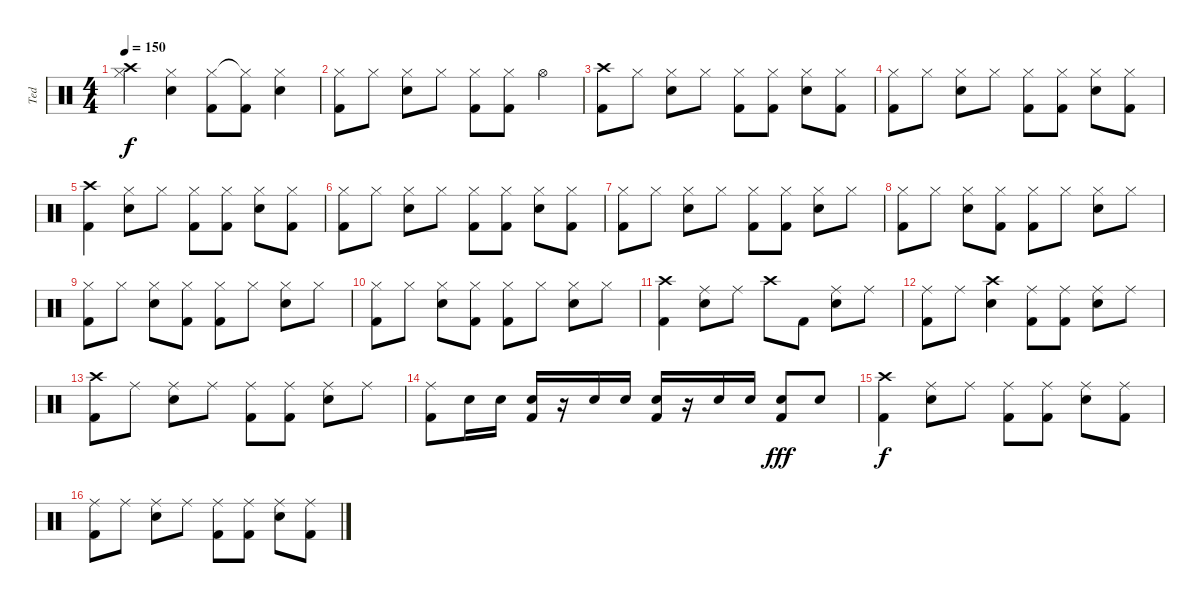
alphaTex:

\track ("Ted" "Ted") {instrument percussion}
\staff {score}
\articulation defaults
\ts (4 4)
\tempo 150
\clef neutral
\ks c
("Crash high (hit)" "Hi-Hat (closed)").4{dy f} ("Hi-Hat (closed)" "Electric Snare (hit)").4 ("Hi-Hat (closed)" "Kick (hit) 2").8 ("Hi-Hat (closed)"{t} "Kick (hit) 2").8 ("Hi-Hat (closed)" "Electric Snare (hit)").4 |
("Hi-Hat (closed)" "Kick (hit) 2").8 "Hi-Hat (closed)".8 ("Hi-Hat (closed)" "Electric Snare (hit)").8 "Hi-Hat (closed)".8 ("Hi-Hat (closed)" "Kick (hit) 2").8 ("Hi-Hat (closed)" "Kick (hit) 2").8 "Hi-Hat (open)".4 |
("Crash high (hit)" "Kick (hit) 2").8 "Hi-Hat (closed)".8 ("Hi-Hat (closed)" "Electric Snare (hit)").8 "Hi-Hat (closed)".8 ("Hi-Hat (closed)" "Kick (hit) 2").8 ("Hi-Hat (closed)" "Kick (hit) 2").8 ("Hi-Hat (closed)" "Electric Snare (hit)").8 ("Hi-Hat (closed)" "Kick (hit) 2").8 |
("Hi-Hat (closed)" "Kick (hit) 2").8 "Hi-Hat (closed)".8 ("Hi-Hat (closed)" "Electric Snare (hit)").8 "Hi-Hat (closed)".8 ("Hi-Hat (closed)" "Kick (hit) 2").8 ("Hi-Hat (closed)" "Kick (hit) 2").8 ("Hi-Hat (closed)" "Electric Snare (hit)").8 ("Hi-Hat (closed)" "Kick (hit) 2").8 |
("Crash high (hit)" "Kick (hit) 2").4 ("Hi-Hat (closed)" "Electric Snare (hit)").8 "Hi-Hat (closed)".8 ("Hi-Hat (closed)" "Kick (hit) 2").8 ("Hi-Hat (closed)" "Kick (hit) 2").8 ("Hi-Hat (closed)" "Electric Snare (hit)").8 ("Hi-Hat (closed)" "Kick (hit) 2").8 |
("Hi-Hat (closed)" "Kick (hit) 2").8 "Hi-Hat (closed)".8 ("Hi-Hat (closed)" "Electric Snare (hit)").8 "Hi-Hat (closed)".8 ("Hi-Hat (closed)" "Kick (hit) 2").8 ("Hi-Hat (closed)" "Kick (hit) 2").8 ("Hi-Hat (closed)" "Electric Snare (hit)").8 ("Hi-Hat (closed)" "Kick (hit) 2").8 |
("Hi-Hat (closed)" "Kick (hit) 2").8 "Hi-Hat (closed)".8 ("Hi-Hat (closed)" "Electric Snare (hit)").8 "Hi-Hat (closed)".8 ("Hi-Hat (closed)" "Kick (hit) 2").8 ("Hi-Hat (closed)" "Kick (hit) 2").8 ("Hi-Hat (closed)" "Electric Snare (hit)").8 "Hi-Hat (closed)".8 |
("Hi-Hat (closed)" "Kick (hit) 2").8 "Hi-Hat (closed)".8 ("Hi-Hat (closed)" "Electric Snare (hit)").8 ("Hi-Hat (closed)" "Kick (hit) 2").8 ("Hi-Hat (closed)" "Kick (hit) 2").8 "Hi-Hat (closed)".8 ("Hi-Hat (closed)" "Electric Snare (hit)").8 "Hi-Hat (closed)".8 |
("Hi-Hat (closed)" "Kick (hit) 2").8 "Hi-Hat (closed)".8 ("Hi-Hat (closed)" "Electric Snare (hit)").8 ("Hi-Hat (closed)" "Kick (hit) 2").8 ("Hi-Hat (closed)" "Kick (hit) 2").8 "Hi-Hat (closed)".8 ("Hi-Hat (closed)" "Electric Snare (hit)").8 "Hi-Hat (closed)".8 |
("Hi-Hat (closed)" "Kick (hit) 2").8 "Hi-Hat (closed)".8 ("Hi-Hat (closed)" "Electric Snare (hit)").8 ("Hi-Hat (closed)" "Kick (hit) 2").8 ("Hi-Hat (closed)" "Kick (hit) 2").8 "Hi-Hat (closed)".8 ("Hi-Hat (closed)" "Electric Snare (hit)").8 "Hi-Hat (closed)".8 |
("Crash high (hit)" "Kick (hit) 2").4 ("Ride (middle)" "Electric Snare (hit)").8 "Ride (middle)".8 "Crash high (hit)".8 "Kick (hit) 2".8 ("Ride (middle)" "Electric Snare (hit)").8 "Ride (middle)".8 |
("Ride (middle)" "Kick (hit) 2").8 "Ride (middle)".8 ("Crash high (hit)" "Electric Snare (hit)").4 ("Ride (middle)" "Kick (hit) 2").8 ("Ride (middle)" "Kick (hit) 2").8 ("Ride (middle)" "Electric Snare (hit)").8 "Ride (middle)".8 |
("Crash high (hit)" "Kick (hit) 2").8 "Ride (middle)".8 ("Ride (middle)" "Electric Snare (hit)").8 "Ride (middle)".8 ("Ride (middle)" "Kick (hit) 2").8 ("Ride (middle)" "Kick (hit) 2").8 ("Ride (middle)" "Electric Snare (hit)").8 "Ride (middle)".8 |
("Ride (middle)" "Kick (hit) 2").8 "Electric Snare (hit)".16 "Electric Snare (hit)".16 ("Electric Snare (hit)" "Kick (hit) 2").16 r.16 "Electric Snare (hit)".16 "Electric Snare (hit)".16 ("Electric Snare (hit)" "Kick (hit) 2").16 r.16 "Electric Snare (hit)".16 "Electric Snare (hit)".16 ("Electric Snare (hit)" "Kick (hit) 2").8{dy fff} "Electric Snare (hit)".8 |
("Crash high (hit)" "Kick (hit) 2").4{dy f} ("Ride (middle)" "Electric Snare (hit)").8 "Ride (middle)".8 ("Ride (middle)" "Kick (hit) 2").8 ("Ride (middle)" "Kick (hit) 2").8 ("Ride (middle)" "Electric Snare (hit)").8 ("Ride (middle)" "Kick (hit) 2").8 |
("Ride (middle)" "Kick (hit) 2").8 "Ride (middle)".8 ("Ride (middle)" "Electric Snare (hit)").8 "Ride (middle)".8 ("Ride (middle)" "Kick (hit) 2").8 ("Ride (middle)" "Kick (hit) 2").8 ("Ride (middle)" "Electric Snare (hit)").8 ("Ride (middle)" "Kick (hit) 2").8
